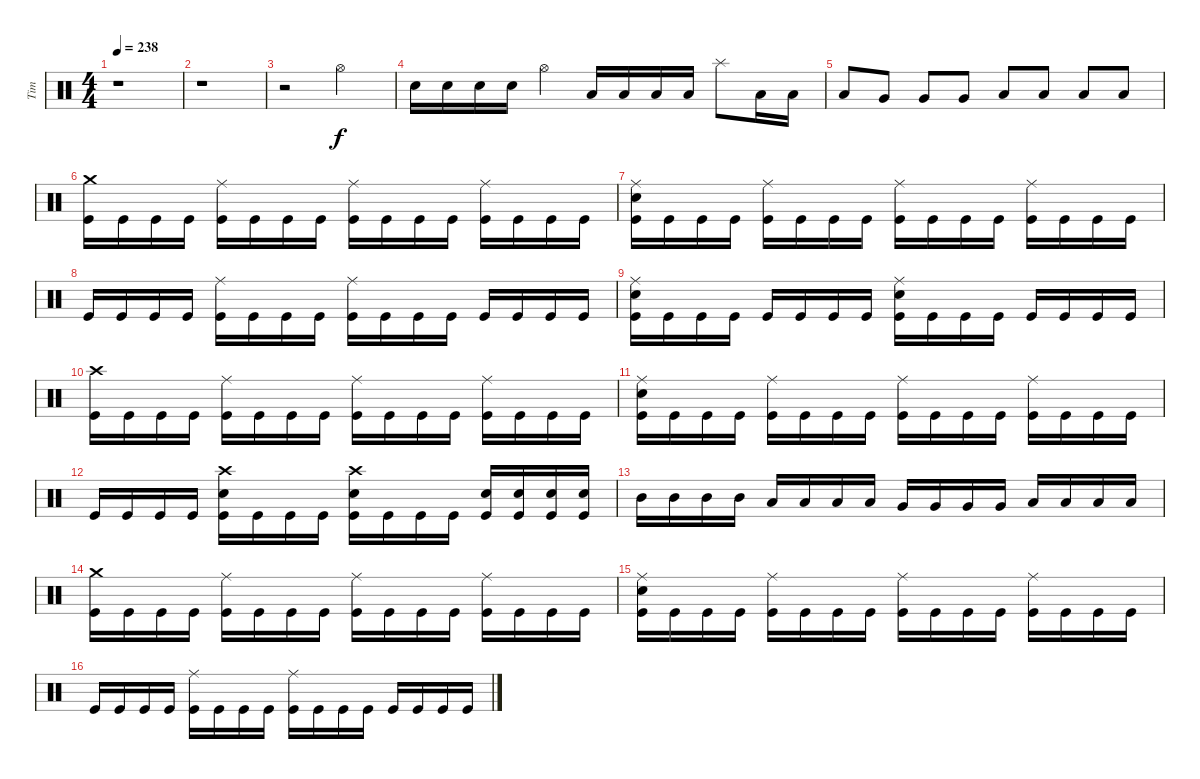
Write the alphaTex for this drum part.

\track ("Tim" "Tim") {instrument percussion}
\staff {score}
\articulation defaults
\ts (4 4)
\tempo 238
\clef neutral
\ks c
r.1{dy f} |
r.1 |
r.2 "Hi-Hat (open)".2 |
"Electric Snare (hit)".16 "Electric Snare (hit)".16 "Electric Snare (hit)".16 "Electric Snare (hit)".16 "Hi-Hat (open)".4 "Low Floor Tom (hit)".16 "Low Floor Tom (hit)".16 "Low Floor Tom (hit)".16 "Low Floor Tom (hit)".16 "Splash (hit)".8 "Low Tom (hit)".16 "Low Tom (hit)".16 |
"Low Tom (hit)".8 "Very Low Tom (hit)".8 "Very Low Tom (hit)".8 "Very Low Tom (hit)".8 "Low Floor Tom (hit)".8 "Low Floor Tom (hit)".8 "Low Floor Tom (hit)".8 "Low Floor Tom (hit)".8 |
("Crash medium (hit)" "Kick (hit)").16 "Kick (hit)".16 "Kick (hit)".16 "Kick (hit)".16 ("Ride (middle)" "Kick (hit)").16 "Kick (hit)".16 "Kick (hit)".16 "Kick (hit)".16 ("Ride (middle)" "Kick (hit)").16 "Kick (hit)".16 "Kick (hit)".16 "Kick (hit)".16 ("Ride (middle)" "Kick (hit)").16 "Kick (hit)".16 "Kick (hit)".16 "Kick (hit)".16 |
("Ride (middle)" "Electric Snare (hit)" "Kick (hit)").16 "Kick (hit)".16 "Kick (hit)".16 "Kick (hit)".16 ("Ride (middle)" "Kick (hit)").16 "Kick (hit)".16 "Kick (hit)".16 "Kick (hit)".16 ("Ride (middle)" "Kick (hit)").16 "Kick (hit)".16 "Kick (hit)".16 "Kick (hit)".16 ("Ride (middle)" "Kick (hit)").16 "Kick (hit)".16 "Kick (hit)".16 "Kick (hit)".16 |
"Kick (hit)".16 "Kick (hit)".16 "Kick (hit)".16 "Kick (hit)".16 ("Ride (middle)" "Kick (hit)").16 "Kick (hit)".16 "Kick (hit)".16 "Kick (hit)".16 ("Ride (middle)" "Kick (hit)").16 "Kick (hit)".16 "Kick (hit)".16 "Kick (hit)".16 "Kick (hit)".16 "Kick (hit)".16 "Kick (hit)".16 "Kick (hit)".16 |
("Ride (middle)" "Electric Snare (hit)" "Kick (hit)").16 "Kick (hit)".16 "Kick (hit)".16 "Kick (hit)".16 "Kick (hit)".16 "Kick (hit)".16 "Kick (hit)".16 "Kick (hit)".16 ("Ride (middle)" "Electric Snare (hit)" "Kick (hit)").16 "Kick (hit)".16 "Kick (hit)".16 "Kick (hit)".16 "Kick (hit)".16 "Kick (hit)".16 "Kick (hit)".16 "Kick (hit)".16 |
("Crash high (hit)" "Kick (hit)").16 "Kick (hit)".16 "Kick (hit)".16 "Kick (hit)".16 ("Ride (middle)" "Kick (hit)").16 "Kick (hit)".16 "Kick (hit)".16 "Kick (hit)".16 ("Ride (middle)" "Kick (hit)").16 "Kick (hit)".16 "Kick (hit)".16 "Kick (hit)".16 ("Ride (middle)" "Kick (hit)").16 "Kick (hit)".16 "Kick (hit)".16 "Kick (hit)".16 |
("Ride (middle)" "Electric Snare (hit)" "Kick (hit)").16 "Kick (hit)".16 "Kick (hit)".16 "Kick (hit)".16 ("Ride (middle)" "Kick (hit)").16 "Kick (hit)".16 "Kick (hit)".16 "Kick (hit)".16 ("Ride (middle)" "Kick (hit)").16 "Kick (hit)".16 "Kick (hit)".16 "Kick (hit)".16 ("Ride (middle)" "Kick (hit)").16 "Kick (hit)".16 "Kick (hit)".16 "Kick (hit)".16 |
"Kick (hit)".16 "Kick (hit)".16 "Kick (hit)".16 "Kick (hit)".16 ("Crash high (hit)" "Electric Snare (hit)" "Kick (hit)").16 "Kick (hit)".16 "Kick (hit)".16 "Kick (hit)".16 ("Crash high (hit)" "Electric Snare (hit)" "Kick (hit)").16 "Kick (hit)".16 "Kick (hit)".16 "Kick (hit)".16 ("Electric Snare (hit)" "Kick (hit)").16 ("Electric Snare (hit)" "Kick (hit)").16 ("Electric Snare (hit)" "Kick (hit)").16 ("Electric Snare (hit)" "Kick (hit)").16 |
"Mid Tom (hit)".16 "Mid Tom (hit)".16 "Mid Tom (hit)".16 "Mid Tom (hit)".16 "Low Tom (hit)".16 "Low Tom (hit)".16 "Low Tom (hit)".16 "Low Tom (hit)".16 "Very Low Tom (hit)".16 "Very Low Tom (hit)".16 "Very Low Tom (hit)".16 "Very Low Tom (hit)".16 "Low Floor Tom (hit)".16 "Low Floor Tom (hit)".16 "Low Floor Tom (hit)".16 "Low Floor Tom (hit)".16 |
("Crash medium (hit)" "Kick (hit)").16 "Kick (hit)".16 "Kick (hit)".16 "Kick (hit)".16 ("Ride (middle)" "Kick (hit)").16 "Kick (hit)".16 "Kick (hit)".16 "Kick (hit)".16 ("Ride (middle)" "Kick (hit)").16 "Kick (hit)".16 "Kick (hit)".16 "Kick (hit)".16 ("Ride (middle)" "Kick (hit)").16 "Kick (hit)".16 "Kick (hit)".16 "Kick (hit)".16 |
("Ride (middle)" "Electric Snare (hit)" "Kick (hit)").16 "Kick (hit)".16 "Kick (hit)".16 "Kick (hit)".16 ("Ride (middle)" "Kick (hit)").16 "Kick (hit)".16 "Kick (hit)".16 "Kick (hit)".16 ("Ride (middle)" "Kick (hit)").16 "Kick (hit)".16 "Kick (hit)".16 "Kick (hit)".16 ("Ride (middle)" "Kick (hit)").16 "Kick (hit)".16 "Kick (hit)".16 "Kick (hit)".16 |
"Kick (hit)".16 "Kick (hit)".16 "Kick (hit)".16 "Kick (hit)".16 ("Ride (middle)" "Kick (hit)").16 "Kick (hit)".16 "Kick (hit)".16 "Kick (hit)".16 ("Ride (middle)" "Kick (hit)").16 "Kick (hit)".16 "Kick (hit)".16 "Kick (hit)".16 "Kick (hit)".16 "Kick (hit)".16 "Kick (hit)".16 "Kick (hit)".16
